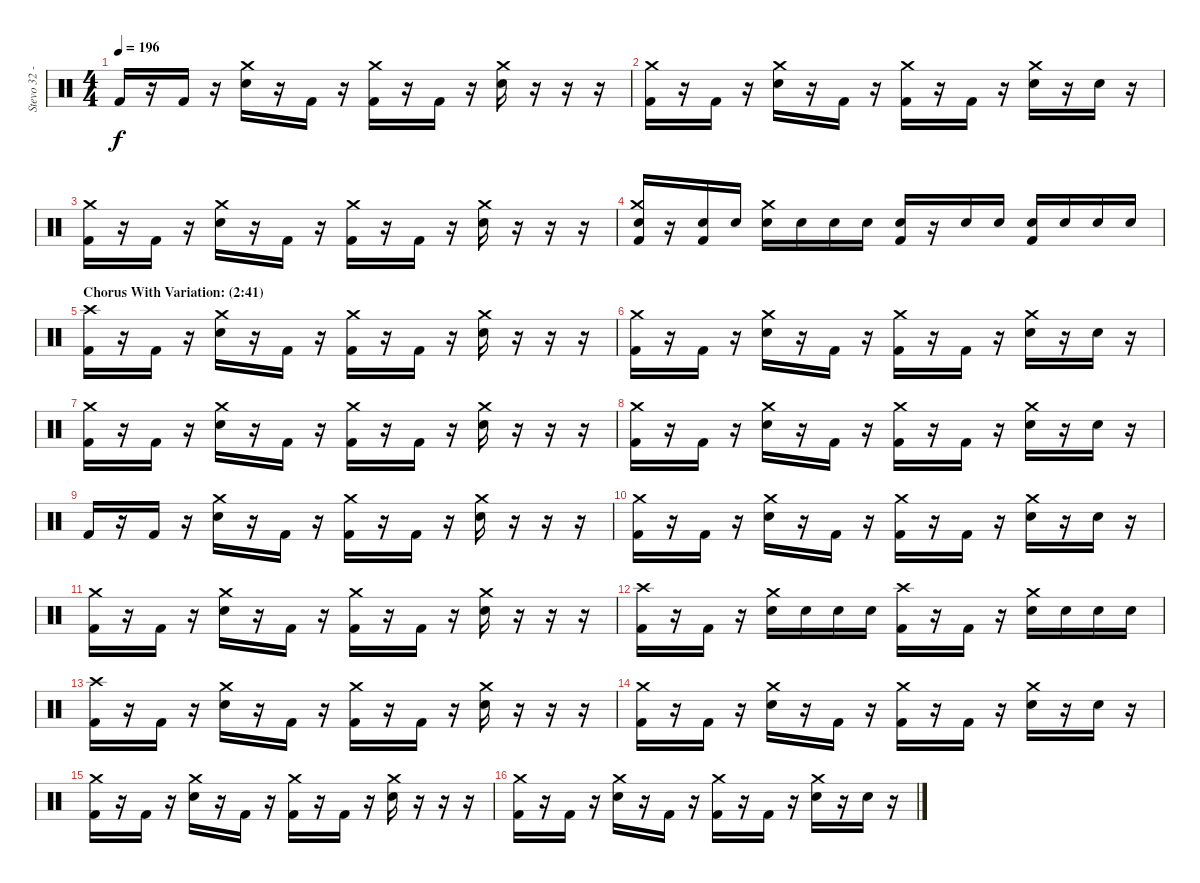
\track ("Stevo 32 - Drums" "Stevo 32 -") {instrument percussion}
\staff {score}
\articulation defaults
\ts (4 4)
\tempo 196
\clef neutral
\ks c "Kick (hit) 2".16{dy f}
r.16 "Kick (hit) 2".16 r.16 ("Crash medium (hit)" "Snare (hit) 2").16 r.16 "Kick (hit) 2".16 r.16 ("Crash medium (hit)" "Kick (hit) 2").16 r.16 "Kick (hit) 2".16 r.16 ("Crash medium (hit)" "Snare (hit) 2").16 r.16 r.16 r.16 |
("Crash medium (hit)" "Kick (hit) 2").16 r.16 "Kick (hit) 2".16 r.16 ("Crash medium (hit)" "Snare (hit) 2").16 r.16 "Kick (hit) 2".16 r.16 ("Crash medium (hit)" "Kick (hit) 2").16 r.16 "Kick (hit) 2".16 r.16 ("Crash medium (hit)" "Snare (hit) 2").16 r.16 "Snare (hit) 2".16 r.16 |
("Crash medium (hit)" "Kick (hit) 2").16 r.16 "Kick (hit) 2".16 r.16 ("Crash medium (hit)" "Snare (hit) 2").16 r.16 "Kick (hit) 2".16 r.16 ("Crash medium (hit)" "Kick (hit) 2").16 r.16 "Kick (hit) 2".16 r.16 ("Crash medium (hit)" "Snare (hit) 2").16 r.16 r.16 r.16 |
("Crash medium (hit)" "Snare (hit) 2" "Kick (hit) 2").16 r.16 ("Snare (hit) 2" "Kick (hit) 2").16 "Snare (hit) 2".16 ("Crash medium (hit)" "Snare (hit) 2").16 "Snare (hit) 2".16 "Snare (hit) 2".16 "Snare (hit) 2".16 ("Snare (hit) 2" "Kick (hit) 2").16 r.16 "Snare (hit) 2".16 "Snare (hit) 2".16 ("Snare (hit) 2" "Kick (hit) 2").16 "Snare (hit) 2".16 "Snare (hit) 2".16 "Snare (hit) 2".16 |
\section ("" "Chorus With Variation: (2:41) ")
("Crash high (hit)" "Kick (hit) 2").16 r.16 "Kick (hit) 2".16 r.16 ("Crash medium (hit)" "Snare (hit) 2").16 r.16 "Kick (hit) 2".16 r.16 ("Crash medium (hit)" "Kick (hit) 2").16 r.16 "Kick (hit) 2".16 r.16 ("Crash medium (hit)" "Snare (hit) 2").16 r.16 r.16 r.16 |
("Crash medium (hit)" "Kick (hit) 2").16 r.16 "Kick (hit) 2".16 r.16 ("Crash medium (hit)" "Snare (hit) 2").16 r.16 "Kick (hit) 2".16 r.16 ("Crash medium (hit)" "Kick (hit) 2").16 r.16 "Kick (hit) 2".16 r.16 ("Crash medium (hit)" "Snare (hit) 2").16 r.16 "Snare (hit) 2".16 r.16 |
("Crash medium (hit)" "Kick (hit) 2").16 r.16 "Kick (hit) 2".16 r.16 ("Crash medium (hit)" "Snare (hit) 2").16 r.16 "Kick (hit) 2".16 r.16 ("Crash medium (hit)" "Kick (hit) 2").16 r.16 "Kick (hit) 2".16 r.16 ("Crash medium (hit)" "Snare (hit) 2").16 r.16 r.16 r.16 |
("Crash medium (hit)" "Kick (hit) 2").16 r.16 "Kick (hit) 2".16 r.16 ("Crash medium (hit)" "Snare (hit) 2").16 r.16 "Kick (hit) 2".16 r.16 ("Crash medium (hit)" "Kick (hit) 2").16 r.16 "Kick (hit) 2".16 r.16 ("Crash medium (hit)" "Snare (hit) 2").16 r.16 "Snare (hit) 2".16 r.16 |
"Kick (hit) 2".16 r.16 "Kick (hit) 2".16 r.16 ("Crash medium (hit)" "Snare (hit) 2").16 r.16 "Kick (hit) 2".16 r.16 ("Crash medium (hit)" "Kick (hit) 2").16 r.16 "Kick (hit) 2".16 r.16 ("Crash medium (hit)" "Snare (hit) 2").16 r.16 r.16 r.16 |
("Crash medium (hit)" "Kick (hit) 2").16 r.16 "Kick (hit) 2".16 r.16 ("Crash medium (hit)" "Snare (hit) 2").16 r.16 "Kick (hit) 2".16 r.16 ("Crash medium (hit)" "Kick (hit) 2").16 r.16 "Kick (hit) 2".16 r.16 ("Crash medium (hit)" "Snare (hit) 2").16 r.16 "Snare (hit) 2".16 r.16 |
("Crash medium (hit)" "Kick (hit) 2").16 r.16 "Kick (hit) 2".16 r.16 ("Crash medium (hit)" "Snare (hit) 2").16 r.16 "Kick (hit) 2".16 r.16 ("Crash medium (hit)" "Kick (hit) 2").16 r.16 "Kick (hit) 2".16 r.16 ("Crash medium (hit)" "Snare (hit) 2").16 r.16 r.16 r.16 |
("Crash high (hit)" "Kick (hit) 2").16 r.16 "Kick (hit) 2".16 r.16 ("Crash medium (hit)" "Snare (hit) 2").16 "Snare (hit) 2".16 "Snare (hit) 2".16 "Snare (hit) 2".16 ("Crash high (hit)" "Kick (hit) 2").16 r.16 "Kick (hit) 2".16 r.16 ("Crash medium (hit)" "Snare (hit) 2").16 "Snare (hit) 2".16 "Snare (hit) 2".16 "Snare (hit) 2".16 |
("Crash high (hit)" "Kick (hit) 2").16 r.16 "Kick (hit) 2".16 r.16 ("Crash medium (hit)" "Snare (hit) 2").16 r.16 "Kick (hit) 2".16 r.16 ("Crash medium (hit)" "Kick (hit) 2").16 r.16 "Kick (hit) 2".16 r.16 ("Crash medium (hit)" "Snare (hit) 2").16 r.16 r.16 r.16 |
("Crash medium (hit)" "Kick (hit) 2").16 r.16 "Kick (hit) 2".16 r.16 ("Crash medium (hit)" "Snare (hit) 2").16 r.16 "Kick (hit) 2".16 r.16 ("Crash medium (hit)" "Kick (hit) 2").16 r.16 "Kick (hit) 2".16 r.16 ("Crash medium (hit)" "Snare (hit) 2").16 r.16 "Snare (hit) 2".16 r.16 |
("Crash medium (hit)" "Kick (hit) 2").16 r.16 "Kick (hit) 2".16 r.16 ("Crash medium (hit)" "Snare (hit) 2").16 r.16 "Kick (hit) 2".16 r.16 ("Crash medium (hit)" "Kick (hit) 2").16 r.16 "Kick (hit) 2".16 r.16 ("Crash medium (hit)" "Snare (hit) 2").16 r.16 r.16 r.16 |
("Crash medium (hit)" "Kick (hit) 2").16 r.16 "Kick (hit) 2".16 r.16 ("Crash medium (hit)" "Snare (hit) 2").16 r.16 "Kick (hit) 2".16 r.16 ("Crash medium (hit)" "Kick (hit) 2").16 r.16 "Kick (hit) 2".16 r.16 ("Crash medium (hit)" "Snare (hit) 2").16 r.16 "Snare (hit) 2".16 r.16
